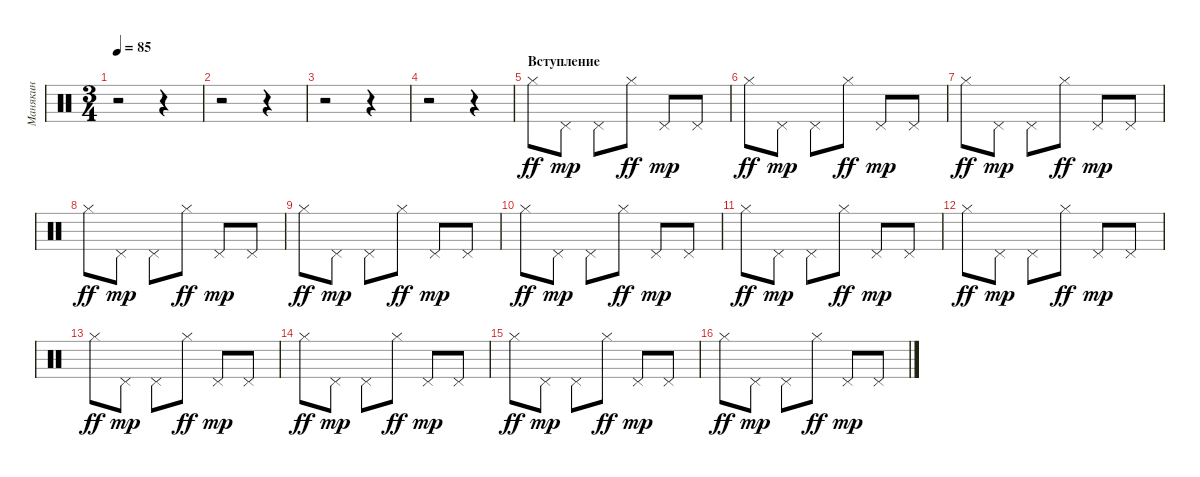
\track ("Манякин" "Манякин") {instrument percussion}
\staff {score}
\articulation defaults
\ts (3 4)
\tempo 85
\clef neutral
\ks c
r.2{dy ff} r.4 |
r.2 r.4 |
r.2 r.4 |
r.2 r.4 |
\section ("" "Вступление")
"Hi-Hat (closed)".8 "Pedal Hi-Hat (hit)".8{dy mp} "Pedal Hi-Hat (hit)".8 "Hi-Hat (closed)".8{dy ff} "Pedal Hi-Hat (hit)".8{dy mp} "Pedal Hi-Hat (hit)".8 |
"Hi-Hat (closed)".8{dy ff} "Pedal Hi-Hat (hit)".8{dy mp} "Pedal Hi-Hat (hit)".8 "Hi-Hat (closed)".8{dy ff} "Pedal Hi-Hat (hit)".8{dy mp} "Pedal Hi-Hat (hit)".8 |
"Hi-Hat (closed)".8{dy ff} "Pedal Hi-Hat (hit)".8{dy mp} "Pedal Hi-Hat (hit)".8 "Hi-Hat (closed)".8{dy ff} "Pedal Hi-Hat (hit)".8{dy mp} "Pedal Hi-Hat (hit)".8 |
"Hi-Hat (closed)".8{dy ff} "Pedal Hi-Hat (hit)".8{dy mp} "Pedal Hi-Hat (hit)".8 "Hi-Hat (closed)".8{dy ff} "Pedal Hi-Hat (hit)".8{dy mp} "Pedal Hi-Hat (hit)".8 |
"Hi-Hat (closed)".8{dy ff} "Pedal Hi-Hat (hit)".8{dy mp} "Pedal Hi-Hat (hit)".8 "Hi-Hat (closed)".8{dy ff} "Pedal Hi-Hat (hit)".8{dy mp} "Pedal Hi-Hat (hit)".8 |
"Hi-Hat (closed)".8{dy ff} "Pedal Hi-Hat (hit)".8{dy mp} "Pedal Hi-Hat (hit)".8 "Hi-Hat (closed)".8{dy ff} "Pedal Hi-Hat (hit)".8{dy mp} "Pedal Hi-Hat (hit)".8 |
"Hi-Hat (closed)".8{dy ff} "Pedal Hi-Hat (hit)".8{dy mp} "Pedal Hi-Hat (hit)".8 "Hi-Hat (closed)".8{dy ff} "Pedal Hi-Hat (hit)".8{dy mp} "Pedal Hi-Hat (hit)".8 |
"Hi-Hat (closed)".8{dy ff} "Pedal Hi-Hat (hit)".8{dy mp} "Pedal Hi-Hat (hit)".8 "Hi-Hat (closed)".8{dy ff} "Pedal Hi-Hat (hit)".8{dy mp} "Pedal Hi-Hat (hit)".8 |
"Hi-Hat (closed)".8{dy ff} "Pedal Hi-Hat (hit)".8{dy mp} "Pedal Hi-Hat (hit)".8 "Hi-Hat (closed)".8{dy ff} "Pedal Hi-Hat (hit)".8{dy mp} "Pedal Hi-Hat (hit)".8 |
"Hi-Hat (closed)".8{dy ff} "Pedal Hi-Hat (hit)".8{dy mp} "Pedal Hi-Hat (hit)".8 "Hi-Hat (closed)".8{dy ff} "Pedal Hi-Hat (hit)".8{dy mp} "Pedal Hi-Hat (hit)".8 |
"Hi-Hat (closed)".8{dy ff} "Pedal Hi-Hat (hit)".8{dy mp} "Pedal Hi-Hat (hit)".8 "Hi-Hat (closed)".8{dy ff} "Pedal Hi-Hat (hit)".8{dy mp} "Pedal Hi-Hat (hit)".8 |
"Hi-Hat (closed)".8{dy ff} "Pedal Hi-Hat (hit)".8{dy mp} "Pedal Hi-Hat (hit)".8 "Hi-Hat (closed)".8{dy ff} "Pedal Hi-Hat (hit)".8{dy mp} "Pedal Hi-Hat (hit)".8
